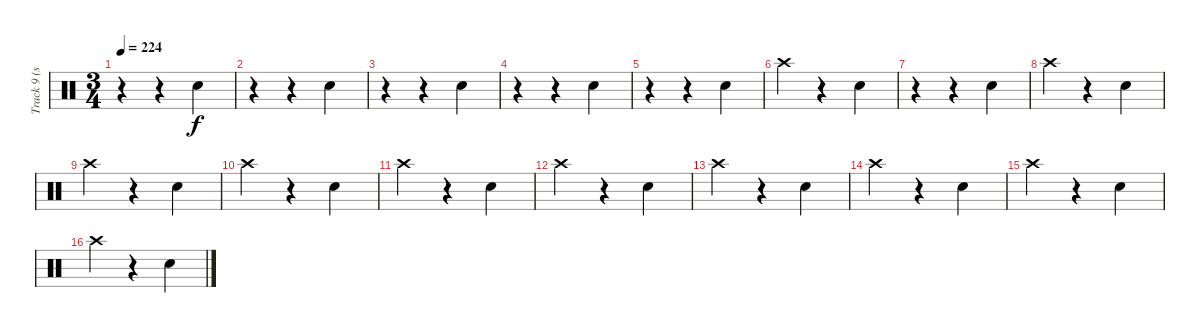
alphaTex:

\track ("Track 9 (snare)" "Track 9 (s") {instrument percussion}
\staff {score}
\articulation defaults
\ts (3 4)
\tempo 224
\clef neutral
\ks c
r.4{dy f} r.4 "Electric Snare (hit)".4 |
r.4 r.4 "Electric Snare (hit)".4 |
r.4 r.4 "Electric Snare (hit)".4 |
r.4 r.4 "Electric Snare (hit)".4 |
r.4 r.4 "Electric Snare (hit)".4 |
"Crash high (hit)".4 r.4 "Electric Snare (hit)".4 |
r.4 r.4 "Electric Snare (hit)".4 |
"Crash high (hit)".4 r.4 "Electric Snare (hit)".4 |
"Crash high (hit)".4 r.4 "Electric Snare (hit)".4 |
"Crash high (hit)".4 r.4 "Electric Snare (hit)".4 |
"Crash high (hit)".4 r.4 "Electric Snare (hit)".4 |
"Crash high (hit)".4 r.4 "Electric Snare (hit)".4 |
"Crash high (hit)".4 r.4 "Electric Snare (hit)".4 |
"Crash high (hit)".4 r.4 "Electric Snare (hit)".4 |
"Crash high (hit)".4 r.4 "Electric Snare (hit)".4 |
"Crash high (hit)".4 r.4 "Electric Snare (hit)".4
